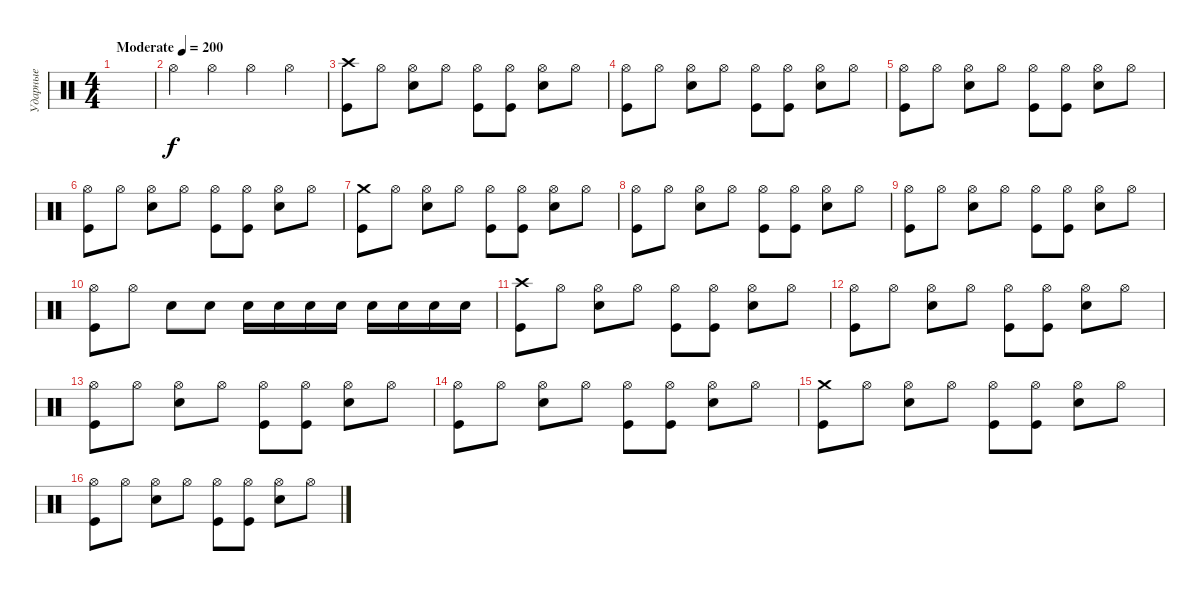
\track ("Ударные" "Ударные") {instrument percussion}
\staff {score}
\articulation defaults
\ts (4 4)
\tempo (200 "Moderate")
\clef neutral
\ks c
|
"Hi-Hat (open)".4 "Hi-Hat (open)".4 "Hi-Hat (open)".4 "Hi-Hat (open)".4 |
("Crash high (hit)" "Kick (hit)").8 "Hi-Hat (open)".8 ("Hi-Hat (open)" "Snare (hit) 2").8 "Hi-Hat (open)".8 ("Hi-Hat (open)" "Kick (hit)").8 ("Hi-Hat (open)" "Kick (hit)").8 ("Hi-Hat (open)" "Snare (hit) 2").8 "Hi-Hat (open)".8 |
("Hi-Hat (open)" "Kick (hit)").8 "Hi-Hat (open)".8 ("Hi-Hat (open)" "Snare (hit) 2").8 "Hi-Hat (open)".8 ("Hi-Hat (open)" "Kick (hit)").8 ("Hi-Hat (open)" "Kick (hit)").8 ("Hi-Hat (open)" "Snare (hit) 2").8 "Hi-Hat (open)".8 |
("Hi-Hat (open)" "Kick (hit)").8 "Hi-Hat (open)".8 ("Hi-Hat (open)" "Snare (hit) 2").8 "Hi-Hat (open)".8 ("Hi-Hat (open)" "Kick (hit)").8 ("Hi-Hat (open)" "Kick (hit)").8 ("Hi-Hat (open)" "Snare (hit) 2").8 "Hi-Hat (open)".8 |
("Hi-Hat (open)" "Kick (hit)").8 "Hi-Hat (open)".8 ("Hi-Hat (open)" "Snare (hit) 2").8 "Hi-Hat (open)".8 ("Hi-Hat (open)" "Kick (hit)").8 ("Hi-Hat (open)" "Kick (hit)").8 ("Hi-Hat (open)" "Snare (hit) 2").8 "Hi-Hat (open)".8 |
("Crash medium (hit)" "Kick (hit)").8 "Hi-Hat (open)".8 ("Hi-Hat (open)" "Snare (hit) 2").8 "Hi-Hat (open)".8 ("Hi-Hat (open)" "Kick (hit)").8 ("Hi-Hat (open)" "Kick (hit)").8 ("Hi-Hat (open)" "Snare (hit) 2").8 "Hi-Hat (open)".8 |
("Hi-Hat (open)" "Kick (hit)").8 "Hi-Hat (open)".8 ("Hi-Hat (open)" "Snare (hit) 2").8 "Hi-Hat (open)".8 ("Hi-Hat (open)" "Kick (hit)").8 ("Hi-Hat (open)" "Kick (hit)").8 ("Hi-Hat (open)" "Snare (hit) 2").8 "Hi-Hat (open)".8 |
("Hi-Hat (open)" "Kick (hit)").8 "Hi-Hat (open)".8 ("Hi-Hat (open)" "Snare (hit) 2").8 "Hi-Hat (open)".8 ("Hi-Hat (open)" "Kick (hit)").8 ("Hi-Hat (open)" "Kick (hit)").8 ("Hi-Hat (open)" "Snare (hit) 2").8 "Hi-Hat (open)".8 |
("Hi-Hat (open)" "Kick (hit)").8 "Hi-Hat (open)".8 "Snare (hit) 2".8 "Snare (hit) 2".8 "Snare (hit) 2".16 "Snare (hit) 2".16 "Snare (hit) 2".16 "Snare (hit) 2".16 "Snare (hit) 2".16 "Snare (hit) 2".16 "Snare (hit) 2".16 "Snare (hit) 2".16 |
("Crash high (hit)" "Kick (hit)").8 "Hi-Hat (open)".8 ("Hi-Hat (open)" "Snare (hit) 2").8 "Hi-Hat (open)".8 ("Hi-Hat (open)" "Kick (hit)").8 ("Hi-Hat (open)" "Kick (hit)").8 ("Hi-Hat (open)" "Snare (hit) 2").8 "Hi-Hat (open)".8 |
("Hi-Hat (open)" "Kick (hit)").8 "Hi-Hat (open)".8 ("Hi-Hat (open)" "Snare (hit) 2").8 "Hi-Hat (open)".8 ("Hi-Hat (open)" "Kick (hit)").8 ("Hi-Hat (open)" "Kick (hit)").8 ("Hi-Hat (open)" "Snare (hit) 2").8 "Hi-Hat (open)".8 |
("Hi-Hat (open)" "Kick (hit)").8 "Hi-Hat (open)".8 ("Hi-Hat (open)" "Snare (hit) 2").8 "Hi-Hat (open)".8 ("Hi-Hat (open)" "Kick (hit)").8 ("Hi-Hat (open)" "Kick (hit)").8 ("Hi-Hat (open)" "Snare (hit) 2").8 "Hi-Hat (open)".8 |
("Hi-Hat (open)" "Kick (hit)").8 "Hi-Hat (open)".8 ("Hi-Hat (open)" "Snare (hit) 2").8 "Hi-Hat (open)".8 ("Hi-Hat (open)" "Kick (hit)").8 ("Hi-Hat (open)" "Kick (hit)").8 ("Hi-Hat (open)" "Snare (hit) 2").8 "Hi-Hat (open)".8 |
("Crash medium (hit)" "Kick (hit)").8 "Hi-Hat (open)".8 ("Hi-Hat (open)" "Snare (hit) 2").8 "Hi-Hat (open)".8 ("Hi-Hat (open)" "Kick (hit)").8 ("Hi-Hat (open)" "Kick (hit)").8 ("Hi-Hat (open)" "Snare (hit) 2").8 "Hi-Hat (open)".8 |
("Hi-Hat (open)" "Kick (hit)").8 "Hi-Hat (open)".8 ("Hi-Hat (open)" "Snare (hit) 2").8 "Hi-Hat (open)".8 ("Hi-Hat (open)" "Kick (hit)").8 ("Hi-Hat (open)" "Kick (hit)").8 ("Hi-Hat (open)" "Snare (hit) 2").8 "Hi-Hat (open)".8
